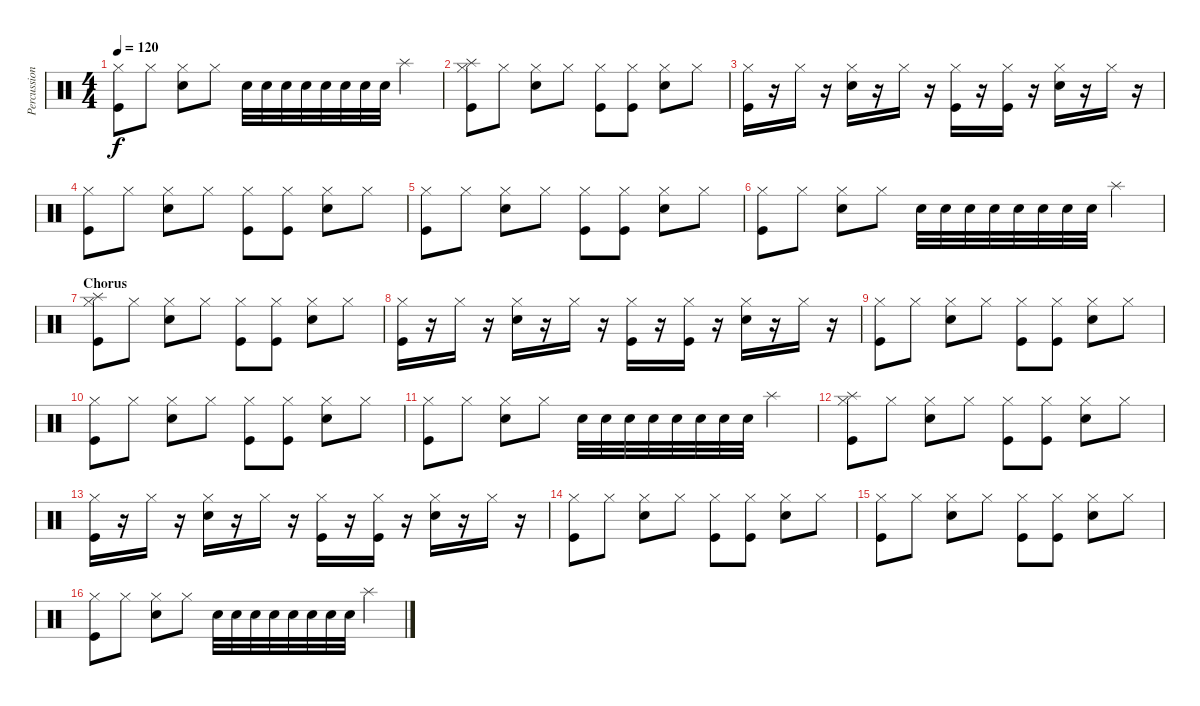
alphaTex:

\track ("Percussion" "Percussion") {instrument percussion}
\staff {score}
\articulation defaults
\ts (4 4)
\tempo 120
\clef neutral
\ks c
("Hi-Hat (closed)" "Kick (hit)").8{dy f} "Hi-Hat (closed)".8 ("Hi-Hat (closed)" "Snare (hit) 2").8 "Hi-Hat (closed)".8 "Snare (hit) 2".32 "Snare (hit) 2".32 "Snare (hit) 2".32 "Snare (hit) 2".32 "Snare (hit) 2".32 "Snare (hit) 2".32 "Snare (hit) 2".32 "Snare (hit) 2".32 "Splash (hit)".4 |
("Hi-Hat (closed)" "Kick (hit)" "Splash (hit)").8 "Hi-Hat (closed)".8 ("Hi-Hat (closed)" "Snare (hit) 2").8 "Hi-Hat (closed)".8 ("Hi-Hat (closed)" "Kick (hit)").8 ("Hi-Hat (closed)" "Kick (hit)").8 ("Hi-Hat (closed)" "Snare (hit) 2").8 "Hi-Hat (closed)".8 |
("Hi-Hat (closed)" "Kick (hit)").16 r.16 "Hi-Hat (closed)".16 r.16 ("Hi-Hat (closed)" "Snare (hit) 2").16 r.16 "Hi-Hat (closed)".16 r.16 ("Hi-Hat (closed)" "Kick (hit)").16 r.16 ("Hi-Hat (closed)" "Kick (hit)").16 r.16 ("Hi-Hat (closed)" "Snare (hit) 2").16 r.16 "Hi-Hat (closed)".16 r.16 |
("Hi-Hat (closed)" "Kick (hit)").8 "Hi-Hat (closed)".8 ("Hi-Hat (closed)" "Snare (hit) 2").8 "Hi-Hat (closed)".8 ("Hi-Hat (closed)" "Kick (hit)").8 ("Hi-Hat (closed)" "Kick (hit)").8 ("Hi-Hat (closed)" "Snare (hit) 2").8 "Hi-Hat (closed)".8 |
("Hi-Hat (closed)" "Kick (hit)").8 "Hi-Hat (closed)".8 ("Hi-Hat (closed)" "Snare (hit) 2").8 "Hi-Hat (closed)".8 ("Hi-Hat (closed)" "Kick (hit)").8 ("Hi-Hat (closed)" "Kick (hit)").8 ("Hi-Hat (closed)" "Snare (hit) 2").8 "Hi-Hat (closed)".8 |
("Hi-Hat (closed)" "Kick (hit)").8 "Hi-Hat (closed)".8 ("Hi-Hat (closed)" "Snare (hit) 2").8 "Hi-Hat (closed)".8 "Snare (hit) 2".32 "Snare (hit) 2".32 "Snare (hit) 2".32 "Snare (hit) 2".32 "Snare (hit) 2".32 "Snare (hit) 2".32 "Snare (hit) 2".32 "Snare (hit) 2".32 "Splash (hit)".4 |
\section ("" "Chorus")
("Hi-Hat (closed)" "Kick (hit)" "Splash (hit)").8 "Hi-Hat (closed)".8 ("Hi-Hat (closed)" "Snare (hit) 2").8 "Hi-Hat (closed)".8 ("Hi-Hat (closed)" "Kick (hit)").8 ("Hi-Hat (closed)" "Kick (hit)").8 ("Hi-Hat (closed)" "Snare (hit) 2").8 "Hi-Hat (closed)".8 |
("Hi-Hat (closed)" "Kick (hit)").16 r.16 "Hi-Hat (closed)".16 r.16 ("Hi-Hat (closed)" "Snare (hit) 2").16 r.16 "Hi-Hat (closed)".16 r.16 ("Hi-Hat (closed)" "Kick (hit)").16 r.16 ("Hi-Hat (closed)" "Kick (hit)").16 r.16 ("Hi-Hat (closed)" "Snare (hit) 2").16 r.16 "Hi-Hat (closed)".16 r.16 |
("Hi-Hat (closed)" "Kick (hit)").8 "Hi-Hat (closed)".8 ("Hi-Hat (closed)" "Snare (hit) 2").8 "Hi-Hat (closed)".8 ("Hi-Hat (closed)" "Kick (hit)").8 ("Hi-Hat (closed)" "Kick (hit)").8 ("Hi-Hat (closed)" "Snare (hit) 2").8 "Hi-Hat (closed)".8 |
("Hi-Hat (closed)" "Kick (hit)").8 "Hi-Hat (closed)".8 ("Hi-Hat (closed)" "Snare (hit) 2").8 "Hi-Hat (closed)".8 ("Hi-Hat (closed)" "Kick (hit)").8 ("Hi-Hat (closed)" "Kick (hit)").8 ("Hi-Hat (closed)" "Snare (hit) 2").8 "Hi-Hat (closed)".8 |
("Hi-Hat (closed)" "Kick (hit)").8 "Hi-Hat (closed)".8 ("Hi-Hat (closed)" "Snare (hit) 2").8 "Hi-Hat (closed)".8 "Snare (hit) 2".32 "Snare (hit) 2".32 "Snare (hit) 2".32 "Snare (hit) 2".32 "Snare (hit) 2".32 "Snare (hit) 2".32 "Snare (hit) 2".32 "Snare (hit) 2".32 "Splash (hit)".4 |
("Hi-Hat (closed)" "Kick (hit)" "Splash (hit)").8 "Hi-Hat (closed)".8 ("Hi-Hat (closed)" "Snare (hit) 2").8 "Hi-Hat (closed)".8 ("Hi-Hat (closed)" "Kick (hit)").8 ("Hi-Hat (closed)" "Kick (hit)").8 ("Hi-Hat (closed)" "Snare (hit) 2").8 "Hi-Hat (closed)".8 |
("Hi-Hat (closed)" "Kick (hit)").16 r.16 "Hi-Hat (closed)".16 r.16 ("Hi-Hat (closed)" "Snare (hit) 2").16 r.16 "Hi-Hat (closed)".16 r.16 ("Hi-Hat (closed)" "Kick (hit)").16 r.16 ("Hi-Hat (closed)" "Kick (hit)").16 r.16 ("Hi-Hat (closed)" "Snare (hit) 2").16 r.16 "Hi-Hat (closed)".16 r.16 |
("Hi-Hat (closed)" "Kick (hit)").8 "Hi-Hat (closed)".8 ("Hi-Hat (closed)" "Snare (hit) 2").8 "Hi-Hat (closed)".8 ("Hi-Hat (closed)" "Kick (hit)").8 ("Hi-Hat (closed)" "Kick (hit)").8 ("Hi-Hat (closed)" "Snare (hit) 2").8 "Hi-Hat (closed)".8 |
("Hi-Hat (closed)" "Kick (hit)").8 "Hi-Hat (closed)".8 ("Hi-Hat (closed)" "Snare (hit) 2").8 "Hi-Hat (closed)".8 ("Hi-Hat (closed)" "Kick (hit)").8 ("Hi-Hat (closed)" "Kick (hit)").8 ("Hi-Hat (closed)" "Snare (hit) 2").8 "Hi-Hat (closed)".8 |
("Hi-Hat (closed)" "Kick (hit)").8 "Hi-Hat (closed)".8 ("Hi-Hat (closed)" "Snare (hit) 2").8 "Hi-Hat (closed)".8 "Snare (hit) 2".32 "Snare (hit) 2".32 "Snare (hit) 2".32 "Snare (hit) 2".32 "Snare (hit) 2".32 "Snare (hit) 2".32 "Snare (hit) 2".32 "Snare (hit) 2".32 "Splash (hit)".4
